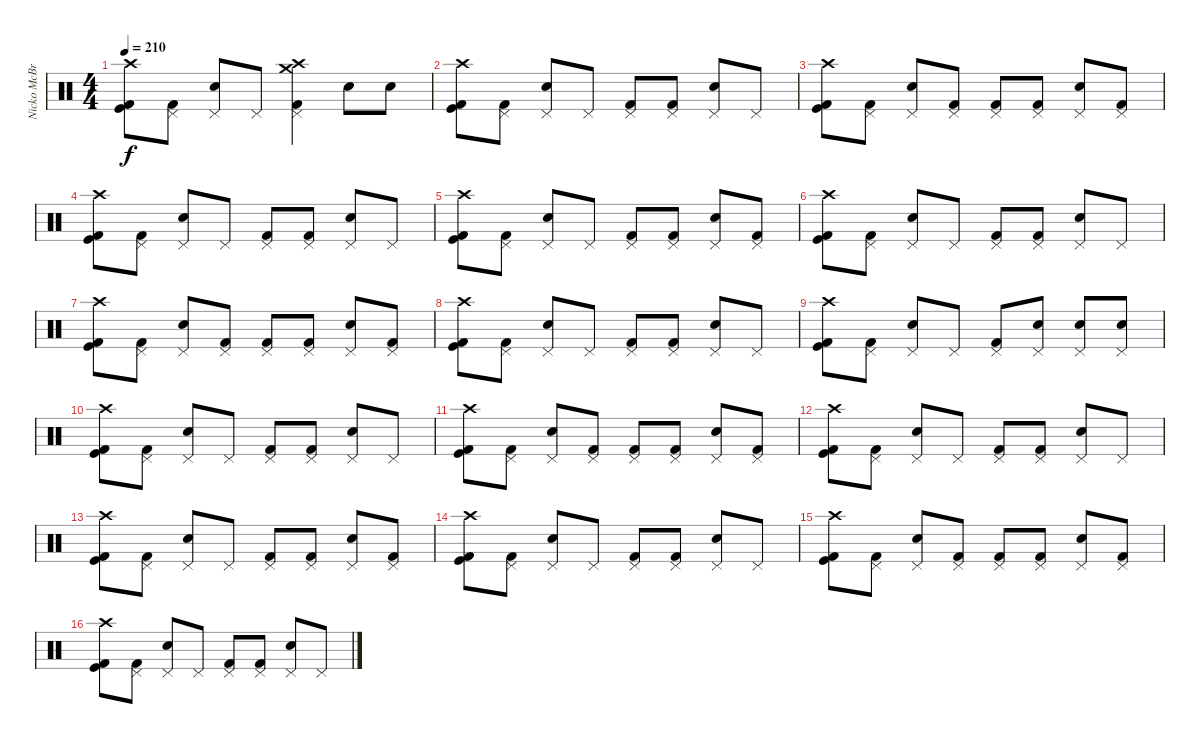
\track ("Nicko McBrain" "Nicko McBr") {instrument percussion}
\staff {score}
\articulation defaults
\ts (4 4)
\tempo 210
\clef neutral
\ks c
("Crash high (hit)" "Kick (hit)" "Kick (hit) 2").8{dy f} ("Pedal Hi-Hat (hit)" "Kick (hit) 2").8 ("Pedal Hi-Hat (hit)" "Snare (hit) 2").8 "Pedal Hi-Hat (hit)".8 ("Pedal Hi-Hat (hit)" "Crash medium (hit)" "Crash high (hit)" "Kick (hit) 2").4 "Snare (hit) 2".8 "Snare (hit) 2".8 |
("Crash high (hit)" "Kick (hit)" "Kick (hit) 2").8 ("Pedal Hi-Hat (hit)" "Kick (hit) 2").8 ("Pedal Hi-Hat (hit)" "Snare (hit) 2").8 "Pedal Hi-Hat (hit)".8 ("Pedal Hi-Hat (hit)" "Kick (hit) 2").8 ("Pedal Hi-Hat (hit)" "Kick (hit) 2").8 ("Pedal Hi-Hat (hit)" "Snare (hit) 2").8 "Pedal Hi-Hat (hit)".8 |
("Crash high (hit)" "Kick (hit)" "Kick (hit) 2").8 ("Pedal Hi-Hat (hit)" "Kick (hit) 2").8 ("Pedal Hi-Hat (hit)" "Snare (hit) 2").8 ("Pedal Hi-Hat (hit)" "Kick (hit) 2").8 ("Pedal Hi-Hat (hit)" "Kick (hit) 2").8 ("Pedal Hi-Hat (hit)" "Kick (hit) 2").8 ("Pedal Hi-Hat (hit)" "Snare (hit) 2").8 ("Pedal Hi-Hat (hit)" "Kick (hit) 2").8 |
("Crash high (hit)" "Kick (hit)" "Kick (hit) 2").8 ("Pedal Hi-Hat (hit)" "Kick (hit) 2").8 ("Pedal Hi-Hat (hit)" "Snare (hit) 2").8 "Pedal Hi-Hat (hit)".8 ("Pedal Hi-Hat (hit)" "Kick (hit) 2").8 ("Pedal Hi-Hat (hit)" "Kick (hit) 2").8 ("Pedal Hi-Hat (hit)" "Snare (hit) 2").8 "Pedal Hi-Hat (hit)".8 |
("Crash high (hit)" "Kick (hit)" "Kick (hit) 2").8 ("Pedal Hi-Hat (hit)" "Kick (hit) 2").8 ("Pedal Hi-Hat (hit)" "Snare (hit) 2").8 "Pedal Hi-Hat (hit)".8 ("Pedal Hi-Hat (hit)" "Kick (hit) 2").8 ("Pedal Hi-Hat (hit)" "Kick (hit) 2").8 ("Pedal Hi-Hat (hit)" "Snare (hit) 2").8 ("Pedal Hi-Hat (hit)" "Kick (hit) 2").8 |
("Crash high (hit)" "Kick (hit)" "Kick (hit) 2").8 ("Pedal Hi-Hat (hit)" "Kick (hit) 2").8 ("Pedal Hi-Hat (hit)" "Snare (hit) 2").8 "Pedal Hi-Hat (hit)".8 ("Pedal Hi-Hat (hit)" "Kick (hit) 2").8 ("Pedal Hi-Hat (hit)" "Kick (hit) 2").8 ("Pedal Hi-Hat (hit)" "Snare (hit) 2").8 "Pedal Hi-Hat (hit)".8 |
("Crash high (hit)" "Kick (hit)" "Kick (hit) 2").8 ("Pedal Hi-Hat (hit)" "Kick (hit) 2").8 ("Pedal Hi-Hat (hit)" "Snare (hit) 2").8 ("Pedal Hi-Hat (hit)" "Kick (hit) 2").8 ("Pedal Hi-Hat (hit)" "Kick (hit) 2").8 ("Pedal Hi-Hat (hit)" "Kick (hit) 2").8 ("Pedal Hi-Hat (hit)" "Snare (hit) 2").8 ("Pedal Hi-Hat (hit)" "Kick (hit) 2").8 |
("Crash high (hit)" "Kick (hit)" "Kick (hit) 2").8 ("Pedal Hi-Hat (hit)" "Kick (hit) 2").8 ("Pedal Hi-Hat (hit)" "Snare (hit) 2").8 "Pedal Hi-Hat (hit)".8 ("Pedal Hi-Hat (hit)" "Kick (hit) 2").8 ("Pedal Hi-Hat (hit)" "Kick (hit) 2").8 ("Pedal Hi-Hat (hit)" "Snare (hit) 2").8 "Pedal Hi-Hat (hit)".8 |
("Crash high (hit)" "Kick (hit)" "Kick (hit) 2").8 ("Pedal Hi-Hat (hit)" "Kick (hit) 2").8 ("Pedal Hi-Hat (hit)" "Snare (hit) 2").8 "Pedal Hi-Hat (hit)".8 ("Pedal Hi-Hat (hit)" "Kick (hit) 2").8 ("Pedal Hi-Hat (hit)" "Snare (hit) 2").8 ("Pedal Hi-Hat (hit)" "Snare (hit) 2").8 ("Pedal Hi-Hat (hit)" "Snare (hit) 2").8 |
("Crash high (hit)" "Kick (hit)" "Kick (hit) 2").8 ("Pedal Hi-Hat (hit)" "Kick (hit) 2").8 ("Pedal Hi-Hat (hit)" "Snare (hit) 2").8 "Pedal Hi-Hat (hit)".8 ("Pedal Hi-Hat (hit)" "Kick (hit) 2").8 ("Pedal Hi-Hat (hit)" "Kick (hit) 2").8 ("Pedal Hi-Hat (hit)" "Snare (hit) 2").8 "Pedal Hi-Hat (hit)".8 |
("Crash high (hit)" "Kick (hit)" "Kick (hit) 2").8 ("Pedal Hi-Hat (hit)" "Kick (hit) 2").8 ("Pedal Hi-Hat (hit)" "Snare (hit) 2").8 ("Pedal Hi-Hat (hit)" "Kick (hit) 2").8 ("Pedal Hi-Hat (hit)" "Kick (hit) 2").8 ("Pedal Hi-Hat (hit)" "Kick (hit) 2").8 ("Pedal Hi-Hat (hit)" "Snare (hit) 2").8 ("Pedal Hi-Hat (hit)" "Kick (hit) 2").8 |
("Crash high (hit)" "Kick (hit)" "Kick (hit) 2").8 ("Pedal Hi-Hat (hit)" "Kick (hit) 2").8 ("Pedal Hi-Hat (hit)" "Snare (hit) 2").8 "Pedal Hi-Hat (hit)".8 ("Pedal Hi-Hat (hit)" "Kick (hit) 2").8 ("Pedal Hi-Hat (hit)" "Kick (hit) 2").8 ("Pedal Hi-Hat (hit)" "Snare (hit) 2").8 "Pedal Hi-Hat (hit)".8 |
("Crash high (hit)" "Kick (hit)" "Kick (hit) 2").8 ("Pedal Hi-Hat (hit)" "Kick (hit) 2").8 ("Pedal Hi-Hat (hit)" "Snare (hit) 2").8 "Pedal Hi-Hat (hit)".8 ("Pedal Hi-Hat (hit)" "Kick (hit) 2").8 ("Pedal Hi-Hat (hit)" "Kick (hit) 2").8 ("Pedal Hi-Hat (hit)" "Snare (hit) 2").8 ("Pedal Hi-Hat (hit)" "Kick (hit) 2").8 |
("Crash high (hit)" "Kick (hit)" "Kick (hit) 2").8 ("Pedal Hi-Hat (hit)" "Kick (hit) 2").8 ("Pedal Hi-Hat (hit)" "Snare (hit) 2").8 "Pedal Hi-Hat (hit)".8 ("Pedal Hi-Hat (hit)" "Kick (hit) 2").8 ("Pedal Hi-Hat (hit)" "Kick (hit) 2").8 ("Pedal Hi-Hat (hit)" "Snare (hit) 2").8 "Pedal Hi-Hat (hit)".8 |
("Crash high (hit)" "Kick (hit)" "Kick (hit) 2").8 ("Pedal Hi-Hat (hit)" "Kick (hit) 2").8 ("Pedal Hi-Hat (hit)" "Snare (hit) 2").8 ("Pedal Hi-Hat (hit)" "Kick (hit) 2").8 ("Pedal Hi-Hat (hit)" "Kick (hit) 2").8 ("Pedal Hi-Hat (hit)" "Kick (hit) 2").8 ("Pedal Hi-Hat (hit)" "Snare (hit) 2").8 ("Pedal Hi-Hat (hit)" "Kick (hit) 2").8 |
("Crash high (hit)" "Kick (hit)" "Kick (hit) 2").8 ("Pedal Hi-Hat (hit)" "Kick (hit) 2").8 ("Pedal Hi-Hat (hit)" "Snare (hit) 2").8 "Pedal Hi-Hat (hit)".8 ("Pedal Hi-Hat (hit)" "Kick (hit) 2").8 ("Pedal Hi-Hat (hit)" "Kick (hit) 2").8 ("Pedal Hi-Hat (hit)" "Snare (hit) 2").8 "Pedal Hi-Hat (hit)".8
